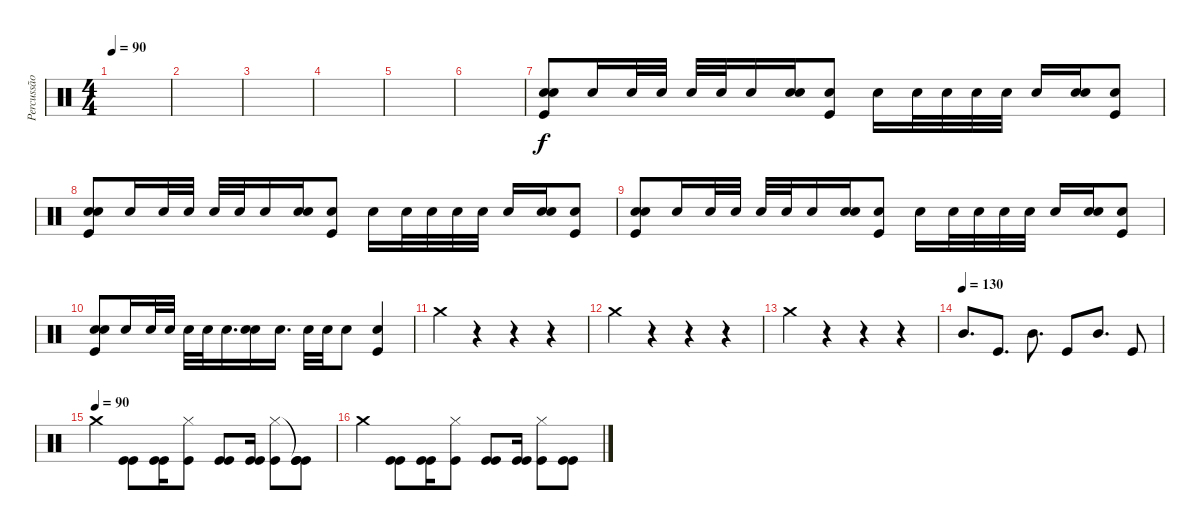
\track ("Percussão" "Percussão") {instrument percussion}
\staff {score}
\articulation defaults
\ts (4 4)
\tempo 90
\clef neutral
\ks c
|
|
|
|
|
|
("Electric Snare (hit)" "Electric Snare (hit)" "Kick (hit)").8 "Electric Snare (hit)".16 "Electric Snare (hit)".32 "Electric Snare (hit)".32 "Electric Snare (hit)".32 "Electric Snare (hit)".32 "Electric Snare (hit)".16 ("Electric Snare (hit)" "Electric Snare (hit)").16 ("Electric Snare (hit)" "Kick (hit)").8 "Electric Snare (hit)".16 "Electric Snare (hit)".32 "Electric Snare (hit)".32 "Electric Snare (hit)".32 "Electric Snare (hit)".32 "Electric Snare (hit)".16 ("Electric Snare (hit)" "Electric Snare (hit)").16 ("Electric Snare (hit)" "Kick (hit)").8 |
("Electric Snare (hit)" "Electric Snare (hit)" "Kick (hit)").8 "Electric Snare (hit)".16 "Electric Snare (hit)".32 "Electric Snare (hit)".32 "Electric Snare (hit)".32 "Electric Snare (hit)".32 "Electric Snare (hit)".16 ("Electric Snare (hit)" "Electric Snare (hit)").16 ("Electric Snare (hit)" "Kick (hit)").8 "Electric Snare (hit)".16 "Electric Snare (hit)".32 "Electric Snare (hit)".32 "Electric Snare (hit)".32 "Electric Snare (hit)".32 "Electric Snare (hit)".16 ("Electric Snare (hit)" "Electric Snare (hit)").16 ("Electric Snare (hit)" "Kick (hit)").8 |
("Electric Snare (hit)" "Electric Snare (hit)" "Kick (hit)").8 "Electric Snare (hit)".16 "Electric Snare (hit)".32 "Electric Snare (hit)".32 "Electric Snare (hit)".32 "Electric Snare (hit)".32 "Electric Snare (hit)".16 ("Electric Snare (hit)" "Electric Snare (hit)").16 ("Electric Snare (hit)" "Kick (hit)").8 "Electric Snare (hit)".16 "Electric Snare (hit)".32 "Electric Snare (hit)".32 "Electric Snare (hit)".32 "Electric Snare (hit)".32 "Electric Snare (hit)".16 ("Electric Snare (hit)" "Electric Snare (hit)").16 ("Electric Snare (hit)" "Kick (hit)").8 |
("Electric Snare (hit)" "Electric Snare (hit)" "Kick (hit)").8 "Electric Snare (hit)".16 "Electric Snare (hit)".32 "Electric Snare (hit)".32 "Electric Snare (hit)".32 "Electric Snare (hit)".32 "Electric Snare (hit)".16{d} ("Electric Snare (hit)" "Electric Snare (hit)").16 "Electric Snare (hit)".16{d} "Electric Snare (hit)".32 "Electric Snare (hit)".32 "Electric Snare (hit)".8 ("Electric Snare (hit)" "Kick (hit)").4 |
"Crash medium (hit)".4 r.4 r.4 r.4 |
"Crash medium (hit)".4 r.4 r.4 r.4 |
"Crash medium (hit)".4 r.4 r.4 r.4 |
\tempo (130)
"Mid Tom (hit)".8{d} "Kick (hit)".8{d} "Mid Tom (hit)".8{d} "Kick (hit)".8 "Mid Tom (hit)".8{d} "Kick (hit)".8 |
\tempo (90)
"Crash medium (hit)".4 ("Kick (hit)" "Kick (hit)").8 ("Kick (hit)" "Kick (hit)").16 ("Hi-Hat (closed)" "Kick (hit)").8 ("Kick (hit)" "Kick (hit)").8 ("Kick (hit)" "Kick (hit)").16 ("Hi-Hat (closed)" "Kick (hit)").8 ("Kick (hit)"{t} "Kick (hit)" "Kick (hit)").8 |
"Crash medium (hit)".4 ("Kick (hit)" "Kick (hit)").8 ("Kick (hit)" "Kick (hit)").16 ("Kick (hit)" "Hi-Hat (closed)").8 ("Kick (hit)" "Kick (hit)").8 ("Kick (hit)" "Kick (hit)").16 ("Kick (hit)" "Hi-Hat (closed)").8 ("Kick (hit)" "Kick (hit)").8
